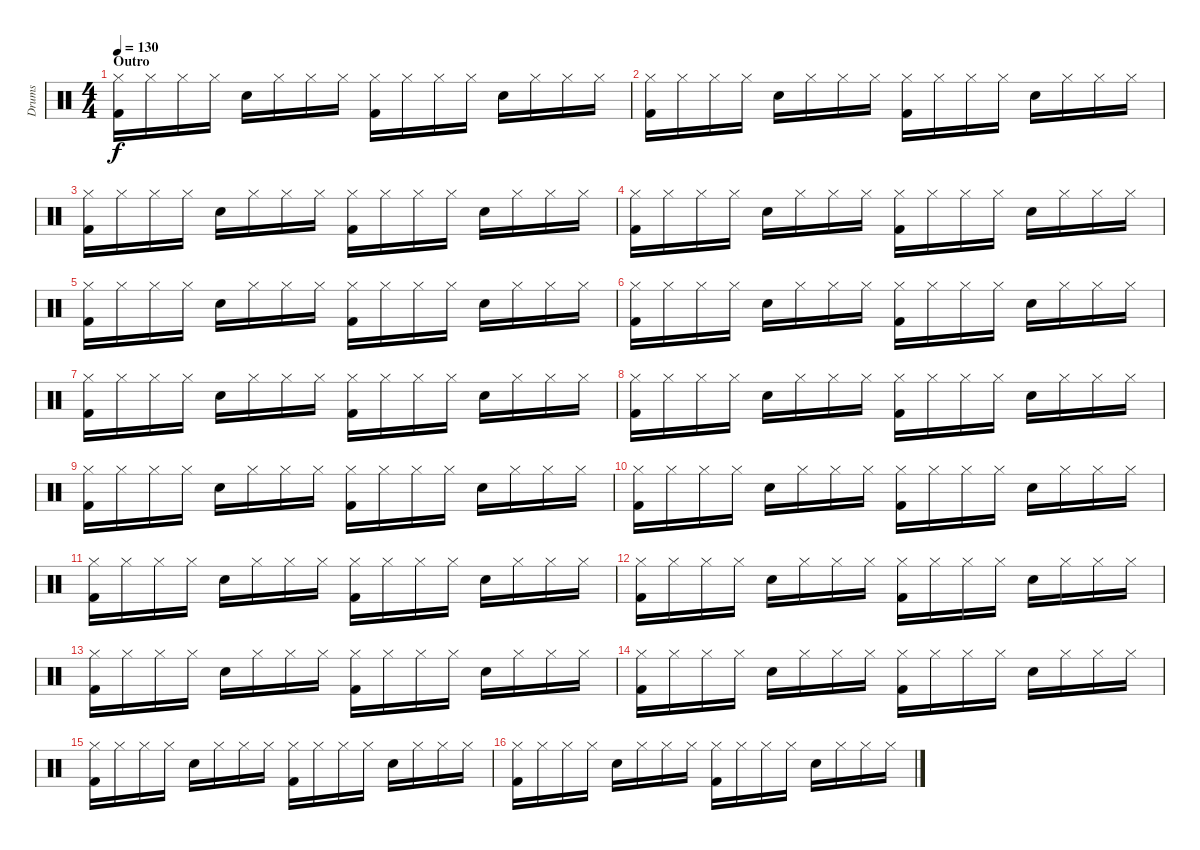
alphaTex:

\track ("Drums" "Drums") {instrument percussion}
\staff {score}
\articulation defaults
\ts (4 4)
\section ("" "Outro")
\tempo 130
\clef neutral
\ks c
("Hi-Hat (closed)" "Kick (hit) 2").16{dy f} "Hi-Hat (closed)".16 "Hi-Hat (closed)".16 "Hi-Hat (closed)".16 "Snare (hit) 2".16 "Hi-Hat (closed)".16 "Hi-Hat (closed)".16 "Hi-Hat (closed)".16 ("Hi-Hat (closed)" "Kick (hit) 2").16 "Hi-Hat (closed)".16 "Hi-Hat (closed)".16 "Hi-Hat (closed)".16 "Snare (hit) 2".16 "Hi-Hat (closed)".16 "Hi-Hat (closed)".16 "Hi-Hat (closed)".16 |
("Hi-Hat (closed)" "Kick (hit) 2").16 "Hi-Hat (closed)".16 "Hi-Hat (closed)".16 "Hi-Hat (closed)".16 "Snare (hit) 2".16 "Hi-Hat (closed)".16 "Hi-Hat (closed)".16 "Hi-Hat (closed)".16 ("Hi-Hat (closed)" "Kick (hit) 2").16 "Hi-Hat (closed)".16 "Hi-Hat (closed)".16 "Hi-Hat (closed)".16 "Snare (hit) 2".16 "Hi-Hat (closed)".16 "Hi-Hat (closed)".16 "Hi-Hat (closed)".16 |
("Hi-Hat (closed)" "Kick (hit) 2").16 "Hi-Hat (closed)".16 "Hi-Hat (closed)".16 "Hi-Hat (closed)".16 "Snare (hit) 2".16 "Hi-Hat (closed)".16 "Hi-Hat (closed)".16 "Hi-Hat (closed)".16 ("Hi-Hat (closed)" "Kick (hit) 2").16 "Hi-Hat (closed)".16 "Hi-Hat (closed)".16 "Hi-Hat (closed)".16 "Snare (hit) 2".16 "Hi-Hat (closed)".16 "Hi-Hat (closed)".16 "Hi-Hat (closed)".16 |
("Hi-Hat (closed)" "Kick (hit) 2").16 "Hi-Hat (closed)".16 "Hi-Hat (closed)".16 "Hi-Hat (closed)".16 "Snare (hit) 2".16 "Hi-Hat (closed)".16 "Hi-Hat (closed)".16 "Hi-Hat (closed)".16 ("Hi-Hat (closed)" "Kick (hit) 2").16 "Hi-Hat (closed)".16 "Hi-Hat (closed)".16 "Hi-Hat (closed)".16 "Snare (hit) 2".16 "Hi-Hat (closed)".16 "Hi-Hat (closed)".16 "Hi-Hat (closed)".16 |
("Hi-Hat (closed)" "Kick (hit) 2").16 "Hi-Hat (closed)".16 "Hi-Hat (closed)".16 "Hi-Hat (closed)".16 "Snare (hit) 2".16 "Hi-Hat (closed)".16 "Hi-Hat (closed)".16 "Hi-Hat (closed)".16 ("Hi-Hat (closed)" "Kick (hit) 2").16 "Hi-Hat (closed)".16 "Hi-Hat (closed)".16 "Hi-Hat (closed)".16 "Snare (hit) 2".16 "Hi-Hat (closed)".16 "Hi-Hat (closed)".16 "Hi-Hat (closed)".16 |
("Hi-Hat (closed)" "Kick (hit) 2").16 "Hi-Hat (closed)".16 "Hi-Hat (closed)".16 "Hi-Hat (closed)".16 "Snare (hit) 2".16 "Hi-Hat (closed)".16 "Hi-Hat (closed)".16 "Hi-Hat (closed)".16 ("Hi-Hat (closed)" "Kick (hit) 2").16 "Hi-Hat (closed)".16 "Hi-Hat (closed)".16 "Hi-Hat (closed)".16 "Snare (hit) 2".16 "Hi-Hat (closed)".16 "Hi-Hat (closed)".16 "Hi-Hat (closed)".16 |
("Hi-Hat (closed)" "Kick (hit) 2").16 "Hi-Hat (closed)".16 "Hi-Hat (closed)".16 "Hi-Hat (closed)".16 "Snare (hit) 2".16 "Hi-Hat (closed)".16 "Hi-Hat (closed)".16 "Hi-Hat (closed)".16 ("Hi-Hat (closed)" "Kick (hit) 2").16 "Hi-Hat (closed)".16 "Hi-Hat (closed)".16 "Hi-Hat (closed)".16 "Snare (hit) 2".16 "Hi-Hat (closed)".16 "Hi-Hat (closed)".16 "Hi-Hat (closed)".16 |
("Hi-Hat (closed)" "Kick (hit) 2").16 "Hi-Hat (closed)".16 "Hi-Hat (closed)".16 "Hi-Hat (closed)".16 "Snare (hit) 2".16 "Hi-Hat (closed)".16 "Hi-Hat (closed)".16 "Hi-Hat (closed)".16 ("Hi-Hat (closed)" "Kick (hit) 2").16 "Hi-Hat (closed)".16 "Hi-Hat (closed)".16 "Hi-Hat (closed)".16 "Snare (hit) 2".16 "Hi-Hat (closed)".16 "Hi-Hat (closed)".16 "Hi-Hat (closed)".16 |
("Hi-Hat (closed)" "Kick (hit) 2").16 "Hi-Hat (closed)".16 "Hi-Hat (closed)".16 "Hi-Hat (closed)".16 "Snare (hit) 2".16 "Hi-Hat (closed)".16 "Hi-Hat (closed)".16 "Hi-Hat (closed)".16 ("Hi-Hat (closed)" "Kick (hit) 2").16 "Hi-Hat (closed)".16 "Hi-Hat (closed)".16 "Hi-Hat (closed)".16 "Snare (hit) 2".16 "Hi-Hat (closed)".16 "Hi-Hat (closed)".16 "Hi-Hat (closed)".16 |
("Hi-Hat (closed)" "Kick (hit) 2").16 "Hi-Hat (closed)".16 "Hi-Hat (closed)".16 "Hi-Hat (closed)".16 "Snare (hit) 2".16 "Hi-Hat (closed)".16 "Hi-Hat (closed)".16 "Hi-Hat (closed)".16 ("Hi-Hat (closed)" "Kick (hit) 2").16 "Hi-Hat (closed)".16 "Hi-Hat (closed)".16 "Hi-Hat (closed)".16 "Snare (hit) 2".16 "Hi-Hat (closed)".16 "Hi-Hat (closed)".16 "Hi-Hat (closed)".16 |
("Hi-Hat (closed)" "Kick (hit) 2").16 "Hi-Hat (closed)".16 "Hi-Hat (closed)".16 "Hi-Hat (closed)".16 "Snare (hit) 2".16 "Hi-Hat (closed)".16 "Hi-Hat (closed)".16 "Hi-Hat (closed)".16 ("Hi-Hat (closed)" "Kick (hit) 2").16 "Hi-Hat (closed)".16 "Hi-Hat (closed)".16 "Hi-Hat (closed)".16 "Snare (hit) 2".16 "Hi-Hat (closed)".16 "Hi-Hat (closed)".16 "Hi-Hat (closed)".16 |
("Hi-Hat (closed)" "Kick (hit) 2").16 "Hi-Hat (closed)".16 "Hi-Hat (closed)".16 "Hi-Hat (closed)".16 "Snare (hit) 2".16 "Hi-Hat (closed)".16 "Hi-Hat (closed)".16 "Hi-Hat (closed)".16 ("Hi-Hat (closed)" "Kick (hit) 2").16 "Hi-Hat (closed)".16 "Hi-Hat (closed)".16 "Hi-Hat (closed)".16 "Snare (hit) 2".16 "Hi-Hat (closed)".16 "Hi-Hat (closed)".16 "Hi-Hat (closed)".16 |
("Hi-Hat (closed)" "Kick (hit) 2").16 "Hi-Hat (closed)".16 "Hi-Hat (closed)".16 "Hi-Hat (closed)".16 "Snare (hit) 2".16 "Hi-Hat (closed)".16 "Hi-Hat (closed)".16 "Hi-Hat (closed)".16 ("Hi-Hat (closed)" "Kick (hit) 2").16 "Hi-Hat (closed)".16 "Hi-Hat (closed)".16 "Hi-Hat (closed)".16 "Snare (hit) 2".16 "Hi-Hat (closed)".16 "Hi-Hat (closed)".16 "Hi-Hat (closed)".16 |
("Hi-Hat (closed)" "Kick (hit) 2").16 "Hi-Hat (closed)".16 "Hi-Hat (closed)".16 "Hi-Hat (closed)".16 "Snare (hit) 2".16 "Hi-Hat (closed)".16 "Hi-Hat (closed)".16 "Hi-Hat (closed)".16 ("Hi-Hat (closed)" "Kick (hit) 2").16 "Hi-Hat (closed)".16 "Hi-Hat (closed)".16 "Hi-Hat (closed)".16 "Snare (hit) 2".16 "Hi-Hat (closed)".16 "Hi-Hat (closed)".16 "Hi-Hat (closed)".16 |
("Hi-Hat (closed)" "Kick (hit) 2").16 "Hi-Hat (closed)".16 "Hi-Hat (closed)".16 "Hi-Hat (closed)".16 "Snare (hit) 2".16 "Hi-Hat (closed)".16 "Hi-Hat (closed)".16 "Hi-Hat (closed)".16 ("Hi-Hat (closed)" "Kick (hit) 2").16 "Hi-Hat (closed)".16 "Hi-Hat (closed)".16 "Hi-Hat (closed)".16 "Snare (hit) 2".16 "Hi-Hat (closed)".16 "Hi-Hat (closed)".16 "Hi-Hat (closed)".16 |
("Hi-Hat (closed)" "Kick (hit) 2").16 "Hi-Hat (closed)".16 "Hi-Hat (closed)".16 "Hi-Hat (closed)".16 "Snare (hit) 2".16 "Hi-Hat (closed)".16 "Hi-Hat (closed)".16 "Hi-Hat (closed)".16 ("Hi-Hat (closed)" "Kick (hit) 2").16 "Hi-Hat (closed)".16 "Hi-Hat (closed)".16 "Hi-Hat (closed)".16 "Snare (hit) 2".16 "Hi-Hat (closed)".16 "Hi-Hat (closed)".16 "Hi-Hat (closed)".16
